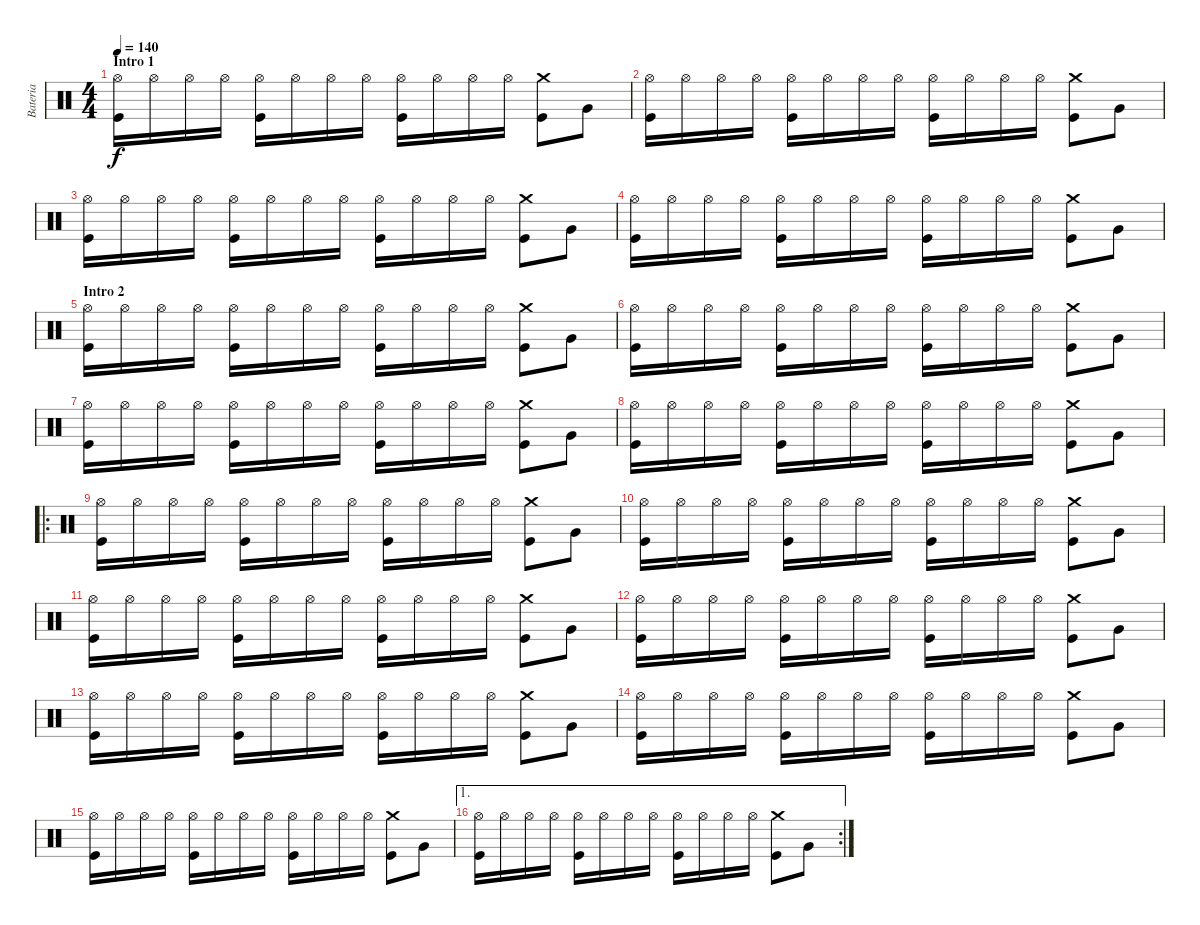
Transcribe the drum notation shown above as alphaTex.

\track ("Bateria" "Bateria") {instrument percussion}
\staff {score}
\articulation defaults
\ts (4 4)
\section ("" "Intro 1")
\tempo 140
\clef neutral
\ks c
("Hi-Hat (open)" "Kick (hit)").16{dy f} "Hi-Hat (open)".16 "Hi-Hat (open)".16 "Hi-Hat (open)".16 ("Hi-Hat (open)" "Kick (hit)").16 "Hi-Hat (open)".16 "Hi-Hat (open)".16 "Hi-Hat (open)".16 ("Hi-Hat (open)" "Kick (hit)").16 "Hi-Hat (open)".16 "Hi-Hat (open)".16 "Hi-Hat (open)".16 ("Crash medium (hit)" "Kick (hit)").8 "Very Low Tom (hit)".8 |
("Hi-Hat (open)" "Kick (hit)").16 "Hi-Hat (open)".16 "Hi-Hat (open)".16 "Hi-Hat (open)".16 ("Hi-Hat (open)" "Kick (hit)").16 "Hi-Hat (open)".16 "Hi-Hat (open)".16 "Hi-Hat (open)".16 ("Hi-Hat (open)" "Kick (hit)").16 "Hi-Hat (open)".16 "Hi-Hat (open)".16 "Hi-Hat (open)".16 ("Crash medium (hit)" "Kick (hit)").8 "Very Low Tom (hit)".8 |
("Hi-Hat (open)" "Kick (hit)").16 "Hi-Hat (open)".16 "Hi-Hat (open)".16 "Hi-Hat (open)".16 ("Hi-Hat (open)" "Kick (hit)").16 "Hi-Hat (open)".16 "Hi-Hat (open)".16 "Hi-Hat (open)".16 ("Hi-Hat (open)" "Kick (hit)").16 "Hi-Hat (open)".16 "Hi-Hat (open)".16 "Hi-Hat (open)".16 ("Crash medium (hit)" "Kick (hit)").8 "Very Low Tom (hit)".8 |
("Hi-Hat (open)" "Kick (hit)").16 "Hi-Hat (open)".16 "Hi-Hat (open)".16 "Hi-Hat (open)".16 ("Hi-Hat (open)" "Kick (hit)").16 "Hi-Hat (open)".16 "Hi-Hat (open)".16 "Hi-Hat (open)".16 ("Hi-Hat (open)" "Kick (hit)").16 "Hi-Hat (open)".16 "Hi-Hat (open)".16 "Hi-Hat (open)".16 ("Crash medium (hit)" "Kick (hit)").8 "Very Low Tom (hit)".8 |
\section ("" "Intro 2")
("Hi-Hat (open)" "Kick (hit)").16 "Hi-Hat (open)".16 "Hi-Hat (open)".16 "Hi-Hat (open)".16 ("Hi-Hat (open)" "Kick (hit)").16 "Hi-Hat (open)".16 "Hi-Hat (open)".16 "Hi-Hat (open)".16 ("Hi-Hat (open)" "Kick (hit)").16 "Hi-Hat (open)".16 "Hi-Hat (open)".16 "Hi-Hat (open)".16 ("Crash medium (hit)" "Kick (hit)").8 "Very Low Tom (hit)".8 |
("Hi-Hat (open)" "Kick (hit)").16 "Hi-Hat (open)".16 "Hi-Hat (open)".16 "Hi-Hat (open)".16 ("Hi-Hat (open)" "Kick (hit)").16 "Hi-Hat (open)".16 "Hi-Hat (open)".16 "Hi-Hat (open)".16 ("Hi-Hat (open)" "Kick (hit)").16 "Hi-Hat (open)".16 "Hi-Hat (open)".16 "Hi-Hat (open)".16 ("Crash medium (hit)" "Kick (hit)").8 "Very Low Tom (hit)".8 |
("Hi-Hat (open)" "Kick (hit)").16 "Hi-Hat (open)".16 "Hi-Hat (open)".16 "Hi-Hat (open)".16 ("Hi-Hat (open)" "Kick (hit)").16 "Hi-Hat (open)".16 "Hi-Hat (open)".16 "Hi-Hat (open)".16 ("Hi-Hat (open)" "Kick (hit)").16 "Hi-Hat (open)".16 "Hi-Hat (open)".16 "Hi-Hat (open)".16 ("Crash medium (hit)" "Kick (hit)").8 "Very Low Tom (hit)".8 |
("Hi-Hat (open)" "Kick (hit)").16 "Hi-Hat (open)".16 "Hi-Hat (open)".16 "Hi-Hat (open)".16 ("Hi-Hat (open)" "Kick (hit)").16 "Hi-Hat (open)".16 "Hi-Hat (open)".16 "Hi-Hat (open)".16 ("Hi-Hat (open)" "Kick (hit)").16 "Hi-Hat (open)".16 "Hi-Hat (open)".16 "Hi-Hat (open)".16 ("Crash medium (hit)" "Kick (hit)").8 "Very Low Tom (hit)".8 |
\ro
("Hi-Hat (open)" "Kick (hit)").16 "Hi-Hat (open)".16 "Hi-Hat (open)".16 "Hi-Hat (open)".16 ("Hi-Hat (open)" "Kick (hit)").16 "Hi-Hat (open)".16 "Hi-Hat (open)".16 "Hi-Hat (open)".16 ("Hi-Hat (open)" "Kick (hit)").16 "Hi-Hat (open)".16 "Hi-Hat (open)".16 "Hi-Hat (open)".16 ("Crash medium (hit)" "Kick (hit)").8 "Very Low Tom (hit)".8 |
("Hi-Hat (open)" "Kick (hit)").16 "Hi-Hat (open)".16 "Hi-Hat (open)".16 "Hi-Hat (open)".16 ("Hi-Hat (open)" "Kick (hit)").16 "Hi-Hat (open)".16 "Hi-Hat (open)".16 "Hi-Hat (open)".16 ("Hi-Hat (open)" "Kick (hit)").16 "Hi-Hat (open)".16 "Hi-Hat (open)".16 "Hi-Hat (open)".16 ("Crash medium (hit)" "Kick (hit)").8 "Very Low Tom (hit)".8 |
("Hi-Hat (open)" "Kick (hit)").16 "Hi-Hat (open)".16 "Hi-Hat (open)".16 "Hi-Hat (open)".16 ("Hi-Hat (open)" "Kick (hit)").16 "Hi-Hat (open)".16 "Hi-Hat (open)".16 "Hi-Hat (open)".16 ("Hi-Hat (open)" "Kick (hit)").16 "Hi-Hat (open)".16 "Hi-Hat (open)".16 "Hi-Hat (open)".16 ("Crash medium (hit)" "Kick (hit)").8 "Very Low Tom (hit)".8 |
("Hi-Hat (open)" "Kick (hit)").16 "Hi-Hat (open)".16 "Hi-Hat (open)".16 "Hi-Hat (open)".16 ("Hi-Hat (open)" "Kick (hit)").16 "Hi-Hat (open)".16 "Hi-Hat (open)".16 "Hi-Hat (open)".16 ("Hi-Hat (open)" "Kick (hit)").16 "Hi-Hat (open)".16 "Hi-Hat (open)".16 "Hi-Hat (open)".16 ("Crash medium (hit)" "Kick (hit)").8 "Very Low Tom (hit)".8 |
("Hi-Hat (open)" "Kick (hit)").16 "Hi-Hat (open)".16 "Hi-Hat (open)".16 "Hi-Hat (open)".16 ("Hi-Hat (open)" "Kick (hit)").16 "Hi-Hat (open)".16 "Hi-Hat (open)".16 "Hi-Hat (open)".16 ("Hi-Hat (open)" "Kick (hit)").16 "Hi-Hat (open)".16 "Hi-Hat (open)".16 "Hi-Hat (open)".16 ("Crash medium (hit)" "Kick (hit)").8 "Very Low Tom (hit)".8 |
("Hi-Hat (open)" "Kick (hit)").16 "Hi-Hat (open)".16 "Hi-Hat (open)".16 "Hi-Hat (open)".16 ("Hi-Hat (open)" "Kick (hit)").16 "Hi-Hat (open)".16 "Hi-Hat (open)".16 "Hi-Hat (open)".16 ("Hi-Hat (open)" "Kick (hit)").16 "Hi-Hat (open)".16 "Hi-Hat (open)".16 "Hi-Hat (open)".16 ("Crash medium (hit)" "Kick (hit)").8 "Very Low Tom (hit)".8 |
("Hi-Hat (open)" "Kick (hit)").16 "Hi-Hat (open)".16 "Hi-Hat (open)".16 "Hi-Hat (open)".16 ("Hi-Hat (open)" "Kick (hit)").16 "Hi-Hat (open)".16 "Hi-Hat (open)".16 "Hi-Hat (open)".16 ("Hi-Hat (open)" "Kick (hit)").16 "Hi-Hat (open)".16 "Hi-Hat (open)".16 "Hi-Hat (open)".16 ("Crash medium (hit)" "Kick (hit)").8 "Very Low Tom (hit)".8 |
\ae 1
\rc 2
("Hi-Hat (open)" "Kick (hit)").16 "Hi-Hat (open)".16 "Hi-Hat (open)".16 "Hi-Hat (open)".16 ("Hi-Hat (open)" "Kick (hit)").16 "Hi-Hat (open)".16 "Hi-Hat (open)".16 "Hi-Hat (open)".16 ("Hi-Hat (open)" "Kick (hit)").16 "Hi-Hat (open)".16 "Hi-Hat (open)".16 "Hi-Hat (open)".16 ("Crash medium (hit)" "Kick (hit)").8 "Very Low Tom (hit)".8
